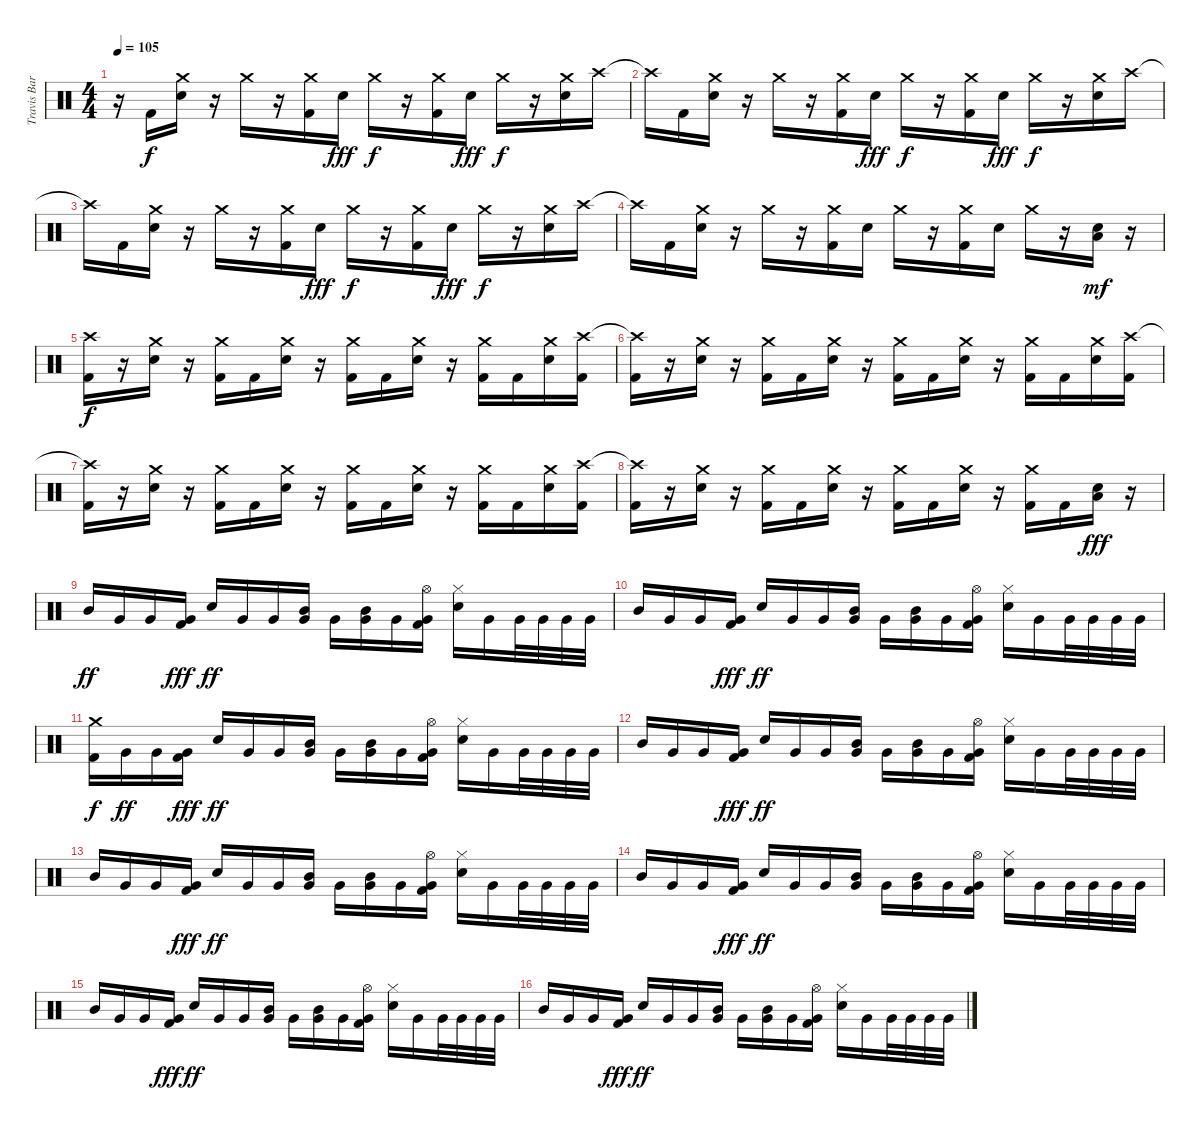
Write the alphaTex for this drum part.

\track ("Travis Barker(Drums)" "Travis Bar") {instrument percussion}
\staff {score}
\articulation defaults
\ts (4 4)
\tempo 105
\clef neutral
\ks c
r.16{dy f} "Kick (hit) 2".16 ("Crash medium (hit)" "Electric Snare (hit)").16 r.16 "Crash medium (hit)".16 r.16 ("Crash medium (hit)" "Kick (hit) 2").16 "Electric Snare (hit)".16{dy fff} "Crash medium (hit)".16{dy f} r.16 ("Crash medium (hit)" "Kick (hit) 2").16 "Electric Snare (hit)".16{dy fff} "Crash medium (hit)".16{dy f} r.16 ("Crash medium (hit)" "Electric Snare (hit)").16 "Crash high (hit)".16 |
"Crash high (hit)"{t}.16 "Kick (hit) 2".16 ("Crash medium (hit)" "Electric Snare (hit)").16 r.16 "Crash medium (hit)".16 r.16 ("Crash medium (hit)" "Kick (hit) 2").16 "Electric Snare (hit)".16{dy fff} "Crash medium (hit)".16{dy f} r.16 ("Crash medium (hit)" "Kick (hit) 2").16 "Electric Snare (hit)".16{dy fff} "Crash medium (hit)".16{dy f} r.16 ("Crash medium (hit)" "Electric Snare (hit)").16 "Crash high (hit)".16 |
"Crash high (hit)"{t}.16 "Kick (hit) 2".16 ("Crash medium (hit)" "Electric Snare (hit)").16 r.16 "Crash medium (hit)".16 r.16 ("Crash medium (hit)" "Kick (hit) 2").16 "Electric Snare (hit)".16{dy fff} "Crash medium (hit)".16{dy f} r.16 ("Crash medium (hit)" "Kick (hit) 2").16 "Electric Snare (hit)".16{dy fff} "Crash medium (hit)".16{dy f} r.16 ("Crash medium (hit)" "Electric Snare (hit)").16 "Crash high (hit)".16 |
"Crash high (hit)"{t}.16 "Kick (hit) 2".16 ("Crash medium (hit)" "Electric Snare (hit)").16 r.16 "Crash medium (hit)".16 r.16 ("Crash medium (hit)" "Kick (hit) 2").16 "Electric Snare (hit)".16 "Crash medium (hit)".16 r.16 ("Crash medium (hit)" "Kick (hit) 2").16 "Electric Snare (hit)".16 "Crash medium (hit)".16 r.16 ("Low Tom (hit)" "Electric Snare (hit)").16{dy mf} r.16 |
("Crash high (hit)" "Kick (hit) 2").16{dy f} r.16 ("Crash medium (hit)" "Electric Snare (hit)").16 r.16 ("Crash medium (hit)" "Kick (hit) 2").16 "Kick (hit) 2".16 ("Crash medium (hit)" "Electric Snare (hit)").16 r.16 ("Crash medium (hit)" "Kick (hit) 2").16 "Kick (hit) 2".16 ("Crash medium (hit)" "Electric Snare (hit)").16 r.16 ("Crash medium (hit)" "Kick (hit) 2").16 "Kick (hit) 2".16 ("Crash medium (hit)" "Electric Snare (hit)").16 ("Crash high (hit)" "Kick (hit) 2").16 |
("Crash high (hit)"{t} "Kick (hit) 2").16 r.16 ("Crash medium (hit)" "Electric Snare (hit)").16 r.16 ("Crash medium (hit)" "Kick (hit) 2").16 "Kick (hit) 2".16 ("Crash medium (hit)" "Electric Snare (hit)").16 r.16 ("Crash medium (hit)" "Kick (hit) 2").16 "Kick (hit) 2".16 ("Crash medium (hit)" "Electric Snare (hit)").16 r.16 ("Crash medium (hit)" "Kick (hit) 2").16 "Kick (hit) 2".16 ("Crash medium (hit)" "Electric Snare (hit)").16 ("Crash high (hit)" "Kick (hit) 2").16 |
("Crash high (hit)"{t} "Kick (hit) 2").16 r.16 ("Crash medium (hit)" "Electric Snare (hit)").16 r.16 ("Crash medium (hit)" "Kick (hit) 2").16 "Kick (hit) 2".16 ("Crash medium (hit)" "Electric Snare (hit)").16 r.16 ("Crash medium (hit)" "Kick (hit) 2").16 "Kick (hit) 2".16 ("Crash medium (hit)" "Electric Snare (hit)").16 r.16 ("Crash medium (hit)" "Kick (hit) 2").16 "Kick (hit) 2".16 ("Crash medium (hit)" "Electric Snare (hit)").16 ("Crash high (hit)" "Kick (hit) 2").16 |
("Crash high (hit)"{t} "Kick (hit) 2").16 r.16 ("Crash medium (hit)" "Electric Snare (hit)").16 r.16 ("Crash medium (hit)" "Kick (hit) 2").16 "Kick (hit) 2".16 ("Crash medium (hit)" "Electric Snare (hit)").16 r.16 ("Crash medium (hit)" "Kick (hit) 2").16 "Kick (hit) 2".16 ("Crash medium (hit)" "Electric Snare (hit)").16 r.16 ("Crash medium (hit)" "Kick (hit) 2").16 "Kick (hit) 2".16 ("Low Tom (hit)" "Electric Snare (hit)").16{dy fff} r.16 |
"Mid Tom (hit)".16{dy ff} "Very Low Tom (hit)".16 "Very Low Tom (hit)".16 ("Very Low Tom (hit)" "Kick (hit) 2").16{dy fff} "Electric Snare (hit)".16{dy ff} "Very Low Tom (hit)".16 "Very Low Tom (hit)".16 ("Mid Tom (hit)" "Very Low Tom (hit)").16 "Very Low Tom (hit)".16 ("Mid Tom (hit)" "Very Low Tom (hit)").16 "Very Low Tom (hit)".16 ("Hi-Hat (open)" "Very Low Tom (hit)" "Kick (hit) 2").16 ("Hi-Hat (closed)" "Electric Snare (hit)").16 "Very Low Tom (hit)".16 "Very Low Tom (hit)".32 "Very Low Tom (hit)".32 "Very Low Tom (hit)".32 "Very Low Tom (hit)".32 |
"Mid Tom (hit)".16 "Very Low Tom (hit)".16 "Very Low Tom (hit)".16 ("Very Low Tom (hit)" "Kick (hit) 2").16{dy fff} "Electric Snare (hit)".16{dy ff} "Very Low Tom (hit)".16 "Very Low Tom (hit)".16 ("Mid Tom (hit)" "Very Low Tom (hit)").16 "Very Low Tom (hit)".16 ("Mid Tom (hit)" "Very Low Tom (hit)").16 "Very Low Tom (hit)".16 ("Hi-Hat (open)" "Very Low Tom (hit)" "Kick (hit) 2").16 ("Hi-Hat (closed)" "Electric Snare (hit)").16 "Very Low Tom (hit)".16 "Very Low Tom (hit)".32 "Very Low Tom (hit)".32 "Very Low Tom (hit)".32 "Very Low Tom (hit)".32 |
("Crash medium (hit)" "Kick (hit) 2").16{dy f} "Very Low Tom (hit)".16{dy ff} "Very Low Tom (hit)".16 ("Very Low Tom (hit)" "Kick (hit) 2").16{dy fff} "Electric Snare (hit)".16{dy ff} "Very Low Tom (hit)".16 "Very Low Tom (hit)".16 ("Mid Tom (hit)" "Very Low Tom (hit)").16 "Very Low Tom (hit)".16 ("Mid Tom (hit)" "Very Low Tom (hit)").16 "Very Low Tom (hit)".16 ("Hi-Hat (open)" "Very Low Tom (hit)" "Kick (hit) 2").16 ("Hi-Hat (closed)" "Electric Snare (hit)").16 "Very Low Tom (hit)".16 "Very Low Tom (hit)".32 "Very Low Tom (hit)".32 "Very Low Tom (hit)".32 "Very Low Tom (hit)".32 |
"Mid Tom (hit)".16 "Very Low Tom (hit)".16 "Very Low Tom (hit)".16 ("Very Low Tom (hit)" "Kick (hit) 2").16{dy fff} "Electric Snare (hit)".16{dy ff} "Very Low Tom (hit)".16 "Very Low Tom (hit)".16 ("Mid Tom (hit)" "Very Low Tom (hit)").16 "Very Low Tom (hit)".16 ("Mid Tom (hit)" "Very Low Tom (hit)").16 "Very Low Tom (hit)".16 ("Hi-Hat (open)" "Very Low Tom (hit)" "Kick (hit) 2").16 ("Hi-Hat (closed)" "Electric Snare (hit)").16 "Very Low Tom (hit)".16 "Very Low Tom (hit)".32 "Very Low Tom (hit)".32 "Very Low Tom (hit)".32 "Very Low Tom (hit)".32 |
"Mid Tom (hit)".16 "Very Low Tom (hit)".16 "Very Low Tom (hit)".16 ("Very Low Tom (hit)" "Kick (hit) 2").16{dy fff} "Electric Snare (hit)".16{dy ff} "Very Low Tom (hit)".16 "Very Low Tom (hit)".16 ("Mid Tom (hit)" "Very Low Tom (hit)").16 "Very Low Tom (hit)".16 ("Mid Tom (hit)" "Very Low Tom (hit)").16 "Very Low Tom (hit)".16 ("Hi-Hat (open)" "Very Low Tom (hit)" "Kick (hit) 2").16 ("Hi-Hat (closed)" "Electric Snare (hit)").16 "Very Low Tom (hit)".16 "Very Low Tom (hit)".32 "Very Low Tom (hit)".32 "Very Low Tom (hit)".32 "Very Low Tom (hit)".32 |
"Mid Tom (hit)".16 "Very Low Tom (hit)".16 "Very Low Tom (hit)".16 ("Very Low Tom (hit)" "Kick (hit) 2").16{dy fff} "Electric Snare (hit)".16{dy ff} "Very Low Tom (hit)".16 "Very Low Tom (hit)".16 ("Mid Tom (hit)" "Very Low Tom (hit)").16 "Very Low Tom (hit)".16 ("Mid Tom (hit)" "Very Low Tom (hit)").16 "Very Low Tom (hit)".16 ("Hi-Hat (open)" "Very Low Tom (hit)" "Kick (hit) 2").16 ("Hi-Hat (closed)" "Electric Snare (hit)").16 "Very Low Tom (hit)".16 "Very Low Tom (hit)".32 "Very Low Tom (hit)".32 "Very Low Tom (hit)".32 "Very Low Tom (hit)".32 |
"Mid Tom (hit)".16 "Very Low Tom (hit)".16 "Very Low Tom (hit)".16 ("Very Low Tom (hit)" "Kick (hit) 2").16{dy fff} "Electric Snare (hit)".16{dy ff} "Very Low Tom (hit)".16 "Very Low Tom (hit)".16 ("Mid Tom (hit)" "Very Low Tom (hit)").16 "Very Low Tom (hit)".16 ("Mid Tom (hit)" "Very Low Tom (hit)").16 "Very Low Tom (hit)".16 ("Hi-Hat (open)" "Very Low Tom (hit)" "Kick (hit) 2").16 ("Hi-Hat (closed)" "Electric Snare (hit)").16 "Very Low Tom (hit)".16 "Very Low Tom (hit)".32 "Very Low Tom (hit)".32 "Very Low Tom (hit)".32 "Very Low Tom (hit)".32 |
"Mid Tom (hit)".16 "Very Low Tom (hit)".16 "Very Low Tom (hit)".16 ("Very Low Tom (hit)" "Kick (hit) 2").16{dy fff} "Electric Snare (hit)".16{dy ff} "Very Low Tom (hit)".16 "Very Low Tom (hit)".16 ("Mid Tom (hit)" "Very Low Tom (hit)").16 "Very Low Tom (hit)".16 ("Mid Tom (hit)" "Very Low Tom (hit)").16 "Very Low Tom (hit)".16 ("Hi-Hat (open)" "Very Low Tom (hit)" "Kick (hit) 2").16 ("Hi-Hat (closed)" "Electric Snare (hit)").16 "Very Low Tom (hit)".16 "Very Low Tom (hit)".32 "Very Low Tom (hit)".32 "Very Low Tom (hit)".32 "Very Low Tom (hit)".32
